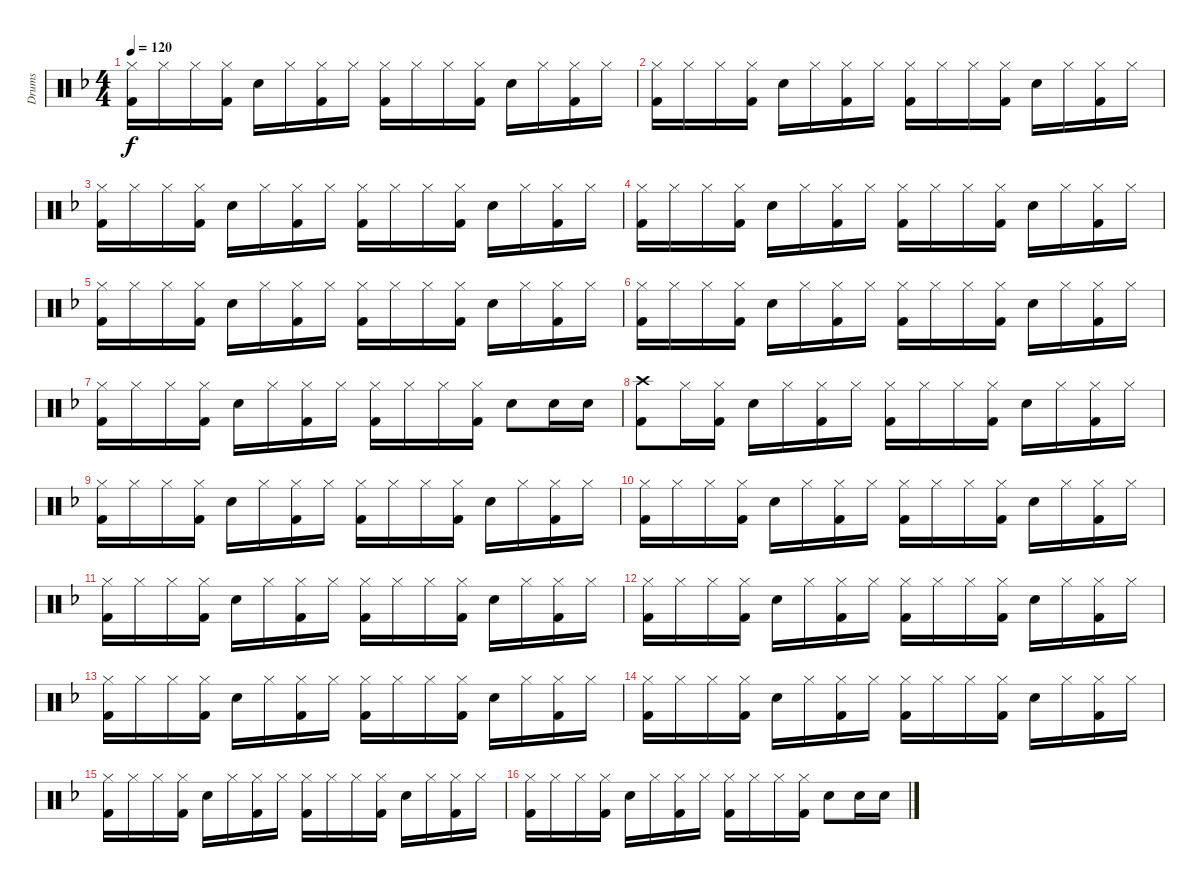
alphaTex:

\track ("Drums" "Drums") {instrument percussion}
\staff {score}
\articulation defaults
\ts (4 4)
\tempo 120
\clef neutral
\ks dminor
("Kick (hit) 2" "Hi-Hat (closed)").16{dy f} "Hi-Hat (closed)".16 "Hi-Hat (closed)".16 ("Kick (hit) 2" "Hi-Hat (closed)").16 "Snare (hit) 2".16 "Hi-Hat (closed)".16 ("Kick (hit) 2" "Hi-Hat (closed)").16 "Hi-Hat (closed)".16 ("Kick (hit) 2" "Hi-Hat (closed)").16 "Hi-Hat (closed)".16 "Hi-Hat (closed)".16 ("Kick (hit) 2" "Hi-Hat (closed)").16 "Snare (hit) 2".16 "Hi-Hat (closed)".16 ("Kick (hit) 2" "Hi-Hat (closed)").16 "Hi-Hat (closed)".16 |
("Kick (hit) 2" "Hi-Hat (closed)").16 "Hi-Hat (closed)".16 "Hi-Hat (closed)".16 ("Kick (hit) 2" "Hi-Hat (closed)").16 "Snare (hit) 2".16 "Hi-Hat (closed)".16 ("Kick (hit) 2" "Hi-Hat (closed)").16 "Hi-Hat (closed)".16 ("Kick (hit) 2" "Hi-Hat (closed)").16 "Hi-Hat (closed)".16 "Hi-Hat (closed)".16 ("Kick (hit) 2" "Hi-Hat (closed)").16 "Snare (hit) 2".16 "Hi-Hat (closed)".16 ("Kick (hit) 2" "Hi-Hat (closed)").16 "Hi-Hat (closed)".16 |
("Kick (hit) 2" "Hi-Hat (closed)").16 "Hi-Hat (closed)".16 "Hi-Hat (closed)".16 ("Kick (hit) 2" "Hi-Hat (closed)").16 "Snare (hit) 2".16 "Hi-Hat (closed)".16 ("Kick (hit) 2" "Hi-Hat (closed)").16 "Hi-Hat (closed)".16 ("Kick (hit) 2" "Hi-Hat (closed)").16 "Hi-Hat (closed)".16 "Hi-Hat (closed)".16 ("Kick (hit) 2" "Hi-Hat (closed)").16 "Snare (hit) 2".16 "Hi-Hat (closed)".16 ("Kick (hit) 2" "Hi-Hat (closed)").16 "Hi-Hat (closed)".16 |
("Kick (hit) 2" "Hi-Hat (closed)").16 "Hi-Hat (closed)".16 "Hi-Hat (closed)".16 ("Kick (hit) 2" "Hi-Hat (closed)").16 "Snare (hit) 2".16 "Hi-Hat (closed)".16 ("Kick (hit) 2" "Hi-Hat (closed)").16 "Hi-Hat (closed)".16 ("Kick (hit) 2" "Hi-Hat (closed)").16 "Hi-Hat (closed)".16 "Hi-Hat (closed)".16 ("Kick (hit) 2" "Hi-Hat (closed)").16 "Snare (hit) 2".16 "Hi-Hat (closed)".16 ("Kick (hit) 2" "Hi-Hat (closed)").16 "Hi-Hat (closed)".16 |
("Kick (hit) 2" "Hi-Hat (closed)").16 "Hi-Hat (closed)".16 "Hi-Hat (closed)".16 ("Kick (hit) 2" "Hi-Hat (closed)").16 "Snare (hit) 2".16 "Hi-Hat (closed)".16 ("Kick (hit) 2" "Hi-Hat (closed)").16 "Hi-Hat (closed)".16 ("Kick (hit) 2" "Hi-Hat (closed)").16 "Hi-Hat (closed)".16 "Hi-Hat (closed)".16 ("Kick (hit) 2" "Hi-Hat (closed)").16 "Snare (hit) 2".16 "Hi-Hat (closed)".16 ("Kick (hit) 2" "Hi-Hat (closed)").16 "Hi-Hat (closed)".16 |
("Kick (hit) 2" "Hi-Hat (closed)").16 "Hi-Hat (closed)".16 "Hi-Hat (closed)".16 ("Kick (hit) 2" "Hi-Hat (closed)").16 "Snare (hit) 2".16 "Hi-Hat (closed)".16 ("Kick (hit) 2" "Hi-Hat (closed)").16 "Hi-Hat (closed)".16 ("Kick (hit) 2" "Hi-Hat (closed)").16 "Hi-Hat (closed)".16 "Hi-Hat (closed)".16 ("Kick (hit) 2" "Hi-Hat (closed)").16 "Snare (hit) 2".16 "Hi-Hat (closed)".16 ("Kick (hit) 2" "Hi-Hat (closed)").16 "Hi-Hat (closed)".16 |
("Kick (hit) 2" "Hi-Hat (closed)").16 "Hi-Hat (closed)".16 "Hi-Hat (closed)".16 ("Kick (hit) 2" "Hi-Hat (closed)").16 "Snare (hit) 2".16 "Hi-Hat (closed)".16 ("Kick (hit) 2" "Hi-Hat (closed)").16 "Hi-Hat (closed)".16 ("Kick (hit) 2" "Hi-Hat (closed)").16 "Hi-Hat (closed)".16 "Hi-Hat (closed)".16 ("Kick (hit) 2" "Hi-Hat (closed)").16 "Snare (hit) 2".8 "Snare (hit) 2".16 "Snare (hit) 2".16 |
("Kick (hit) 2" "Crash high (hit)").8 "Hi-Hat (closed)".16 ("Kick (hit) 2" "Hi-Hat (closed)").16 "Snare (hit) 2".16 "Hi-Hat (closed)".16 ("Kick (hit) 2" "Hi-Hat (closed)").16 "Hi-Hat (closed)".16 ("Kick (hit) 2" "Hi-Hat (closed)").16 "Hi-Hat (closed)".16 "Hi-Hat (closed)".16 ("Kick (hit) 2" "Hi-Hat (closed)").16 "Snare (hit) 2".16 "Hi-Hat (closed)".16 ("Kick (hit) 2" "Hi-Hat (closed)").16 "Hi-Hat (closed)".16 |
("Kick (hit) 2" "Hi-Hat (closed)").16 "Hi-Hat (closed)".16 "Hi-Hat (closed)".16 ("Kick (hit) 2" "Hi-Hat (closed)").16 "Snare (hit) 2".16 "Hi-Hat (closed)".16 ("Kick (hit) 2" "Hi-Hat (closed)").16 "Hi-Hat (closed)".16 ("Kick (hit) 2" "Hi-Hat (closed)").16 "Hi-Hat (closed)".16 "Hi-Hat (closed)".16 ("Kick (hit) 2" "Hi-Hat (closed)").16 "Snare (hit) 2".16 "Hi-Hat (closed)".16 ("Kick (hit) 2" "Hi-Hat (closed)").16 "Hi-Hat (closed)".16 |
("Kick (hit) 2" "Hi-Hat (closed)").16 "Hi-Hat (closed)".16 "Hi-Hat (closed)".16 ("Kick (hit) 2" "Hi-Hat (closed)").16 "Snare (hit) 2".16 "Hi-Hat (closed)".16 ("Kick (hit) 2" "Hi-Hat (closed)").16 "Hi-Hat (closed)".16 ("Kick (hit) 2" "Hi-Hat (closed)").16 "Hi-Hat (closed)".16 "Hi-Hat (closed)".16 ("Kick (hit) 2" "Hi-Hat (closed)").16 "Snare (hit) 2".16 "Hi-Hat (closed)".16 ("Kick (hit) 2" "Hi-Hat (closed)").16 "Hi-Hat (closed)".16 |
("Kick (hit) 2" "Hi-Hat (closed)").16 "Hi-Hat (closed)".16 "Hi-Hat (closed)".16 ("Kick (hit) 2" "Hi-Hat (closed)").16 "Snare (hit) 2".16 "Hi-Hat (closed)".16 ("Kick (hit) 2" "Hi-Hat (closed)").16 "Hi-Hat (closed)".16 ("Kick (hit) 2" "Hi-Hat (closed)").16 "Hi-Hat (closed)".16 "Hi-Hat (closed)".16 ("Kick (hit) 2" "Hi-Hat (closed)").16 "Snare (hit) 2".16 "Hi-Hat (closed)".16 ("Kick (hit) 2" "Hi-Hat (closed)").16 "Hi-Hat (closed)".16 |
("Kick (hit) 2" "Hi-Hat (closed)").16 "Hi-Hat (closed)".16 "Hi-Hat (closed)".16 ("Kick (hit) 2" "Hi-Hat (closed)").16 "Snare (hit) 2".16 "Hi-Hat (closed)".16 ("Kick (hit) 2" "Hi-Hat (closed)").16 "Hi-Hat (closed)".16 ("Kick (hit) 2" "Hi-Hat (closed)").16 "Hi-Hat (closed)".16 "Hi-Hat (closed)".16 ("Kick (hit) 2" "Hi-Hat (closed)").16 "Snare (hit) 2".16 "Hi-Hat (closed)".16 ("Kick (hit) 2" "Hi-Hat (closed)").16 "Hi-Hat (closed)".16 |
("Kick (hit) 2" "Hi-Hat (closed)").16 "Hi-Hat (closed)".16 "Hi-Hat (closed)".16 ("Kick (hit) 2" "Hi-Hat (closed)").16 "Snare (hit) 2".16 "Hi-Hat (closed)".16 ("Kick (hit) 2" "Hi-Hat (closed)").16 "Hi-Hat (closed)".16 ("Kick (hit) 2" "Hi-Hat (closed)").16 "Hi-Hat (closed)".16 "Hi-Hat (closed)".16 ("Kick (hit) 2" "Hi-Hat (closed)").16 "Snare (hit) 2".16 "Hi-Hat (closed)".16 ("Kick (hit) 2" "Hi-Hat (closed)").16 "Hi-Hat (closed)".16 |
("Kick (hit) 2" "Hi-Hat (closed)").16 "Hi-Hat (closed)".16 "Hi-Hat (closed)".16 ("Kick (hit) 2" "Hi-Hat (closed)").16 "Snare (hit) 2".16 "Hi-Hat (closed)".16 ("Kick (hit) 2" "Hi-Hat (closed)").16 "Hi-Hat (closed)".16 ("Kick (hit) 2" "Hi-Hat (closed)").16 "Hi-Hat (closed)".16 "Hi-Hat (closed)".16 ("Kick (hit) 2" "Hi-Hat (closed)").16 "Snare (hit) 2".16 "Hi-Hat (closed)".16 ("Kick (hit) 2" "Hi-Hat (closed)").16 "Hi-Hat (closed)".16 |
("Kick (hit) 2" "Hi-Hat (closed)").16 "Hi-Hat (closed)".16 "Hi-Hat (closed)".16 ("Kick (hit) 2" "Hi-Hat (closed)").16 "Snare (hit) 2".16 "Hi-Hat (closed)".16 ("Kick (hit) 2" "Hi-Hat (closed)").16 "Hi-Hat (closed)".16 ("Kick (hit) 2" "Hi-Hat (closed)").16 "Hi-Hat (closed)".16 "Hi-Hat (closed)".16 ("Kick (hit) 2" "Hi-Hat (closed)").16 "Snare (hit) 2".16 "Hi-Hat (closed)".16 ("Kick (hit) 2" "Hi-Hat (closed)").16 "Hi-Hat (closed)".16 |
("Kick (hit) 2" "Hi-Hat (closed)").16 "Hi-Hat (closed)".16 "Hi-Hat (closed)".16 ("Kick (hit) 2" "Hi-Hat (closed)").16 "Snare (hit) 2".16 "Hi-Hat (closed)".16 ("Kick (hit) 2" "Hi-Hat (closed)").16 "Hi-Hat (closed)".16 ("Kick (hit) 2" "Hi-Hat (closed)").16 "Hi-Hat (closed)".16 "Hi-Hat (closed)".16 ("Kick (hit) 2" "Hi-Hat (closed)").16 "Snare (hit) 2".8 "Snare (hit) 2".16 "Snare (hit) 2".16
